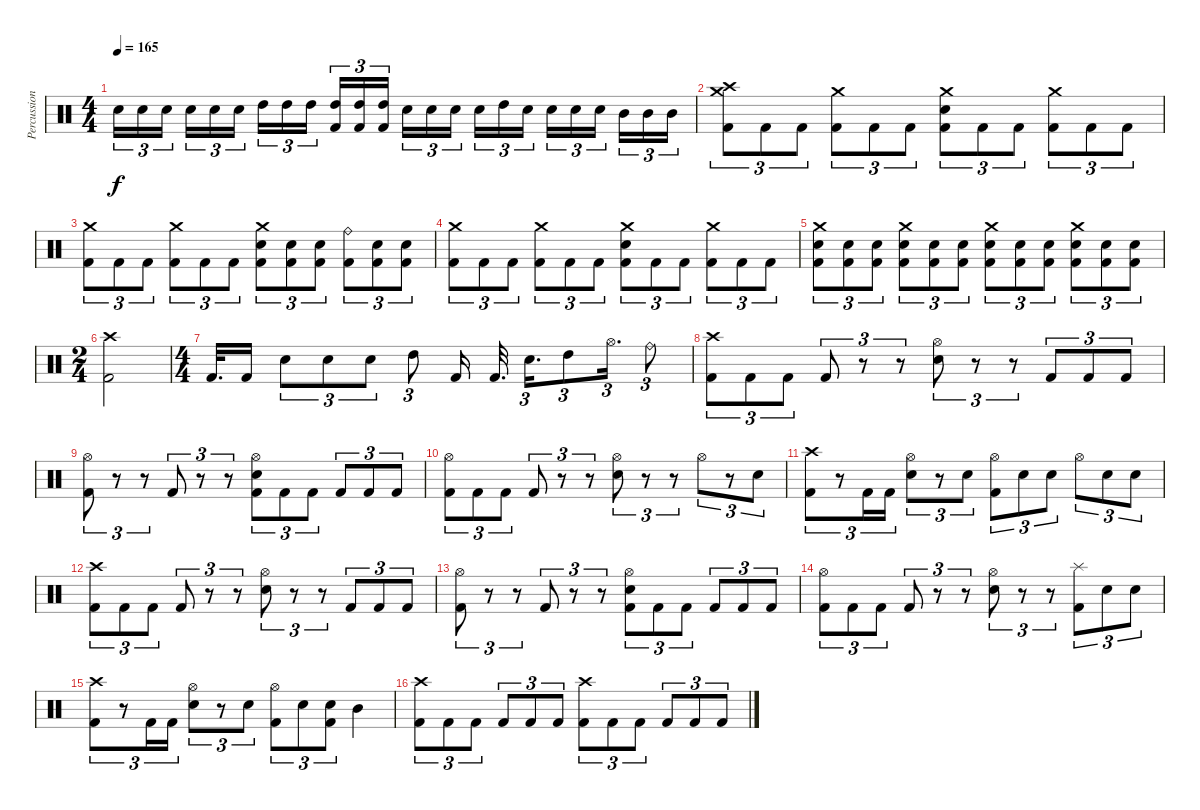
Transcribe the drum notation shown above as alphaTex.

\track ("Percussion" "Percussion") {instrument percussion}
\staff {score}
\articulation defaults
\ts (4 4)
\tempo 165
\clef neutral
\ks c "Electric Snare (hit)".16{tu (3 2) dy f} "Electric Snare (hit)".16{tu (3 2)} "Electric Snare (hit)".16{tu (3 2) beam splitsecondary} "Electric Snare (hit)".16{tu (3 2)} "Electric Snare (hit)".16{tu (3 2)} "Electric Snare (hit)".16{tu (3 2)} "High Tom (hit)".16{tu (3 2)} "High Tom (hit)".16{tu (3 2)} "High Tom (hit)".16{tu (3 2) beam splitsecondary}
("High Tom (hit)" "Kick (hit) 2").16{tu (3 2)} ("High Tom (hit)" "Kick (hit) 2").16{tu (3 2)} ("High Tom (hit)" "Kick (hit) 2").16{tu (3 2)} "Electric Snare (hit)".16{tu (3 2)} "Electric Snare (hit)".16{tu (3 2)} "Electric Snare (hit)".16{tu (3 2) beam splitsecondary} "Electric Snare (hit)".16{tu (3 2)} "High Tom (hit)".16{tu (3 2)} "Electric Snare (hit)".16{tu (3 2)} "Electric Snare (hit)".16{tu (3 2)} "Electric Snare (hit)".16{tu (3 2)} "Electric Snare (hit)".16{tu (3 2) beam splitsecondary} "Mid Tom (hit)".16{tu (3 2)} "Mid Tom (hit)".16{tu (3 2)} "Mid Tom (hit)".16{tu (3 2)} |
("Crash high (hit)" "Crash medium (hit)" "Kick (hit) 2").8{tu (3 2)} "Kick (hit) 2".8{tu (3 2)} "Kick (hit) 2".8{tu (3 2)} ("Crash medium (hit)" "Kick (hit) 2").8{tu (3 2)} "Kick (hit) 2".8{tu (3 2)} "Kick (hit) 2".8{tu (3 2)} ("Crash medium (hit)" "Electric Snare (hit)" "Kick (hit) 2").8{tu (3 2)} "Kick (hit) 2".8{tu (3 2)} "Kick (hit) 2".8{tu (3 2)} ("Crash medium (hit)" "Kick (hit) 2").8{tu (3 2)} "Kick (hit) 2".8{tu (3 2)} "Kick (hit) 2".8{tu (3 2)} |
("Crash medium (hit)" "Kick (hit) 2").8{tu (3 2)} "Kick (hit) 2".8{tu (3 2)} "Kick (hit) 2".8{tu (3 2)} ("Crash medium (hit)" "Kick (hit) 2").8{tu (3 2)} "Kick (hit) 2".8{tu (3 2)} "Kick (hit) 2".8{tu (3 2)} ("Crash medium (hit)" "Electric Snare (hit)" "Kick (hit) 2").8{tu (3 2)} ("Electric Snare (hit)" "Kick (hit) 2").8{tu (3 2)} ("Electric Snare (hit)" "Kick (hit) 2").8{tu (3 2)} ("Ride (bell)" "Kick (hit) 2").8{tu (3 2)} ("Electric Snare (hit)" "Kick (hit) 2").8{tu (3 2)} ("Electric Snare (hit)" "Kick (hit) 2").8{tu (3 2)} |
("Crash medium (hit)" "Kick (hit) 2").8{tu (3 2)} "Kick (hit) 2".8{tu (3 2)} "Kick (hit) 2".8{tu (3 2)} ("Crash medium (hit)" "Kick (hit) 2").8{tu (3 2)} "Kick (hit) 2".8{tu (3 2)} "Kick (hit) 2".8{tu (3 2)} ("Crash medium (hit)" "Electric Snare (hit)" "Kick (hit) 2").8{tu (3 2)} "Kick (hit) 2".8{tu (3 2)} "Kick (hit) 2".8{tu (3 2)} ("Crash medium (hit)" "Kick (hit) 2").8{tu (3 2)} "Kick (hit) 2".8{tu (3 2)} "Kick (hit) 2".8{tu (3 2)} |
("Crash medium (hit)" "Electric Snare (hit)" "Kick (hit) 2").8{tu (3 2)} ("Electric Snare (hit)" "Kick (hit) 2").8{tu (3 2)} ("Electric Snare (hit)" "Kick (hit) 2").8{tu (3 2)} ("Crash medium (hit)" "Electric Snare (hit)" "Kick (hit) 2").8{tu (3 2)} ("Electric Snare (hit)" "Kick (hit) 2").8{tu (3 2)} ("Electric Snare (hit)" "Kick (hit) 2").8{tu (3 2)} ("Crash medium (hit)" "Electric Snare (hit)" "Kick (hit) 2").8{tu (3 2)} ("Electric Snare (hit)" "Kick (hit) 2").8{tu (3 2)} ("Electric Snare (hit)" "Kick (hit) 2").8{tu (3 2)} ("Crash medium (hit)" "Electric Snare (hit)" "Kick (hit) 2").8{tu (3 2)} ("Electric Snare (hit)" "Kick (hit) 2").8{tu (3 2)} ("Electric Snare (hit)" "Kick (hit) 2").8{tu (3 2)} |
\ts (2 4)
("Crash high (hit)" "Kick (hit) 2").2 |
\ts (4 4)
"Kick (hit) 2".32{d} "Kick (hit) 2".16 "Electric Snare (hit)".8{tu (3 2)} "Electric Snare (hit)".8{tu (3 2)} "Electric Snare (hit)".8{tu (3 2)} "High Tom (hit)".8{tu (3 2)} "Kick (hit) 2".16 "Kick (hit) 2".32{d beam splitsecondary} "Electric Snare (hit)".16{d tu (3 2)} "High Tom (hit)".8{tu (3 2)} "Hi-Hat (open)".16{d tu (3 2)} "Ride (bell)".8{tu (3 2)} |
("Crash high (hit)" "Kick (hit) 2").8{tu (3 2)} "Kick (hit) 2".8{tu (3 2)} "Kick (hit) 2".8{tu (3 2)} "Kick (hit) 2".8{tu (3 2)} r.8{tu (3 2)} r.8{tu (3 2)} ("Hi-Hat (open)" "Electric Snare (hit)").8{tu (3 2)} r.8{tu (3 2)} r.8{tu (3 2)} "Kick (hit) 2".8{tu (3 2)} "Kick (hit) 2".8{tu (3 2)} "Kick (hit) 2".8{tu (3 2)} |
("Hi-Hat (open)" "Kick (hit) 2").8{tu (3 2)} r.8{tu (3 2)} r.8{tu (3 2)} "Kick (hit) 2".8{tu (3 2)} r.8{tu (3 2)} r.8{tu (3 2)} ("Hi-Hat (open)" "Electric Snare (hit)" "Kick (hit) 2").8{tu (3 2)} "Kick (hit) 2".8{tu (3 2)} "Kick (hit) 2".8{tu (3 2)} "Kick (hit) 2".8{tu (3 2)} "Kick (hit) 2".8{tu (3 2)} "Kick (hit) 2".8{tu (3 2)} |
("Hi-Hat (open)" "Kick (hit) 2").8{tu (3 2)} "Kick (hit) 2".8{tu (3 2)} "Kick (hit) 2".8{tu (3 2)} "Kick (hit) 2".8{tu (3 2)} r.8{tu (3 2)} r.8{tu (3 2)} ("Hi-Hat (open)" "Electric Snare (hit)").8{tu (3 2)} r.8{tu (3 2)} r.8{tu (3 2)} "Hi-Hat (open)".8{tu (3 2)} r.8{tu (3 2)} "Electric Snare (hit)".8{tu (3 2)} |
("Crash high (hit)" "Kick (hit) 2").8{tu (3 2)} r.8{tu (3 2)} "Kick (hit) 2".16{tu (3 2)} "Kick (hit) 2".16{tu (3 2)} ("Hi-Hat (open)" "Electric Snare (hit)").8{tu (3 2)} r.8{tu (3 2)} "Electric Snare (hit)".8{tu (3 2)} ("Hi-Hat (open)" "Kick (hit) 2").8{tu (3 2)} "Electric Snare (hit)".8{tu (3 2)} "Electric Snare (hit)".8{tu (3 2)} "Hi-Hat (open)".8{tu (3 2)} "Electric Snare (hit)".8{tu (3 2)} "Electric Snare (hit)".8{tu (3 2)} |
("Crash high (hit)" "Kick (hit) 2").8{tu (3 2)} "Kick (hit) 2".8{tu (3 2)} "Kick (hit) 2".8{tu (3 2)} "Kick (hit) 2".8{tu (3 2)} r.8{tu (3 2)} r.8{tu (3 2)} ("Hi-Hat (open)" "Electric Snare (hit)").8{tu (3 2)} r.8{tu (3 2)} r.8{tu (3 2)} "Kick (hit) 2".8{tu (3 2)} "Kick (hit) 2".8{tu (3 2)} "Kick (hit) 2".8{tu (3 2)} |
("Hi-Hat (open)" "Kick (hit) 2").8{tu (3 2)} r.8{tu (3 2)} r.8{tu (3 2)} "Kick (hit) 2".8{tu (3 2)} r.8{tu (3 2)} r.8{tu (3 2)} ("Hi-Hat (open)" "Electric Snare (hit)" "Kick (hit) 2").8{tu (3 2)} "Kick (hit) 2".8{tu (3 2)} "Kick (hit) 2".8{tu (3 2)} "Kick (hit) 2".8{tu (3 2)} "Kick (hit) 2".8{tu (3 2)} "Kick (hit) 2".8{tu (3 2)} |
("Hi-Hat (open)" "Kick (hit) 2").8{tu (3 2)} "Kick (hit) 2".8{tu (3 2)} "Kick (hit) 2".8{tu (3 2)} "Kick (hit) 2".8{tu (3 2)} r.8{tu (3 2)} r.8{tu (3 2)} ("Hi-Hat (open)" "Electric Snare (hit)").8{tu (3 2)} r.8{tu (3 2)} r.8{tu (3 2)} ("Splash (hit)" "Kick (hit) 2").8{tu (3 2)} "Electric Snare (hit)".8{tu (3 2)} "Electric Snare (hit)".8{tu (3 2)} |
("Crash high (hit)" "Kick (hit) 2").8{tu (3 2)} r.8{tu (3 2)} "Kick (hit) 2".16{tu (3 2)} "Kick (hit) 2".16{tu (3 2)} ("Hi-Hat (open)" "Electric Snare (hit)").8{tu (3 2)} r.8{tu (3 2)} "Electric Snare (hit)".8{tu (3 2)} ("Hi-Hat (open)" "Kick (hit) 2").8{tu (3 2)} "Electric Snare (hit)".8{tu (3 2)} ("Electric Snare (hit)" "Kick (hit) 2").8{tu (3 2)} "Mid Tom (hit)".4 |
("Crash high (hit)" "Kick (hit) 2").8{tu (3 2)} "Kick (hit) 2".8{tu (3 2)} "Kick (hit) 2".8{tu (3 2)} "Kick (hit) 2".8{tu (3 2)} "Kick (hit) 2".8{tu (3 2)} "Kick (hit) 2".8{tu (3 2)} ("Crash high (hit)" "Kick (hit) 2").8{tu (3 2)} "Kick (hit) 2".8{tu (3 2)} "Kick (hit) 2".8{tu (3 2)} "Kick (hit) 2".8{tu (3 2)} "Kick (hit) 2".8{tu (3 2)} "Kick (hit) 2".8{tu (3 2)}
